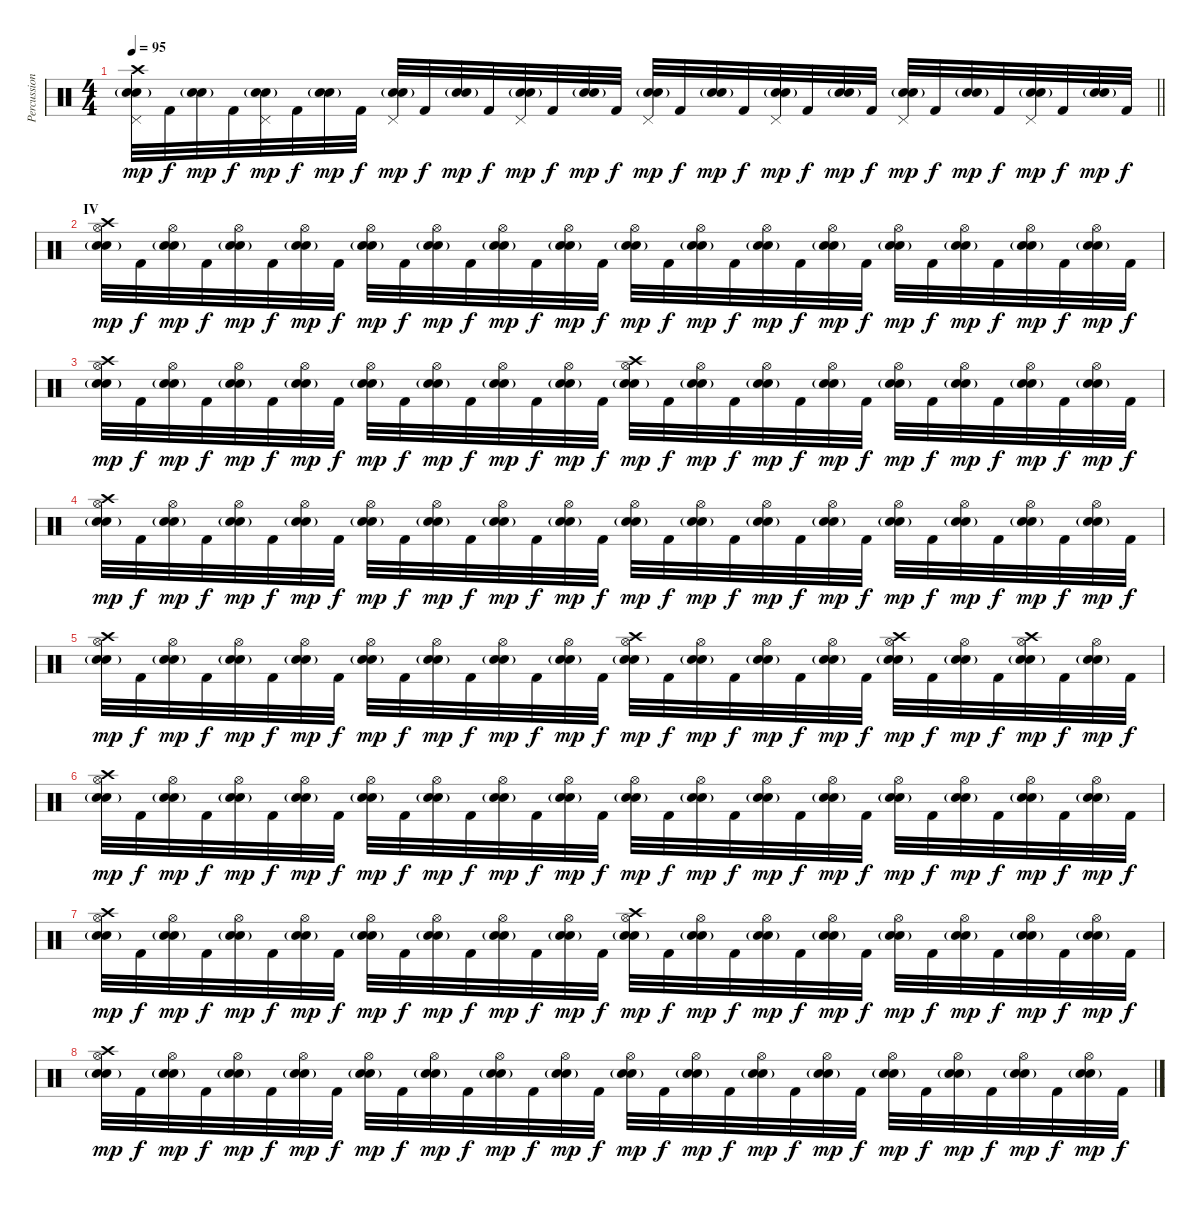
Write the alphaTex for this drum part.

\track ("Percussion" "Percussion") {instrument percussion}
\staff {score}
\articulation defaults
\ts (4 4)
\tempo 95
\clef neutral
\barLineRight lightlight
\ks c
("Crash high (hit)" "Electric Snare (hit)" "Snare (hit) 2"{g} "Pedal Hi-Hat (hit)").32{dy mp} "Kick (hit) 2".32{dy f} ("Electric Snare (hit)" "Snare (hit) 2"{g}).32{dy mp} "Kick (hit) 2".32{dy f} ("Electric Snare (hit)" "Snare (hit) 2"{g} "Pedal Hi-Hat (hit)").32{dy mp} "Kick (hit) 2".32{dy f} ("Electric Snare (hit)" "Snare (hit) 2"{g}).32{dy mp} "Kick (hit) 2".32{dy f} ("Electric Snare (hit)" "Snare (hit) 2"{g} "Pedal Hi-Hat (hit)").32{dy mp} "Kick (hit) 2".32{dy f} ("Electric Snare (hit)" "Snare (hit) 2"{g}).32{dy mp} "Kick (hit) 2".32{dy f} ("Electric Snare (hit)" "Snare (hit) 2"{g} "Pedal Hi-Hat (hit)").32{dy mp} "Kick (hit) 2".32{dy f} ("Electric Snare (hit)" "Snare (hit) 2"{g}).32{dy mp} "Kick (hit) 2".32{dy f} ("Electric Snare (hit)" "Snare (hit) 2"{g} "Pedal Hi-Hat (hit)").32{dy mp} "Kick (hit) 2".32{dy f} ("Electric Snare (hit)" "Snare (hit) 2"{g}).32{dy mp} "Kick (hit) 2".32{dy f} ("Electric Snare (hit)" "Snare (hit) 2"{g} "Pedal Hi-Hat (hit)").32{dy mp} "Kick (hit) 2".32{dy f} ("Electric Snare (hit)" "Snare (hit) 2"{g}).32{dy mp} "Kick (hit) 2".32{dy f} ("Electric Snare (hit)" "Snare (hit) 2"{g} "Pedal Hi-Hat (hit)").32{dy mp} "Kick (hit) 2".32{dy f} ("Electric Snare (hit)" "Snare (hit) 2"{g}).32{dy mp} "Kick (hit) 2".32{dy f} ("Electric Snare (hit)" "Snare (hit) 2"{g} "Pedal Hi-Hat (hit)").32{dy mp} "Kick (hit) 2".32{dy f} ("Electric Snare (hit)" "Snare (hit) 2"{g}).32{dy mp} "Kick (hit) 2".32{dy f} |
\section ("" "IV")
("Crash high (hit)" "Electric Snare (hit)" "Snare (hit) 2"{g} "Hi-Hat (open)").32{dy mp} "Kick (hit) 2".32{dy f} ("Electric Snare (hit)" "Snare (hit) 2"{g} "Hi-Hat (open)").32{dy mp} "Kick (hit) 2".32{dy f} ("Electric Snare (hit)" "Snare (hit) 2"{g} "Hi-Hat (open)").32{dy mp} "Kick (hit) 2".32{dy f} ("Electric Snare (hit)" "Snare (hit) 2"{g} "Hi-Hat (open)").32{dy mp} "Kick (hit) 2".32{dy f} ("Electric Snare (hit)" "Snare (hit) 2"{g} "Hi-Hat (open)").32{dy mp} "Kick (hit) 2".32{dy f} ("Electric Snare (hit)" "Snare (hit) 2"{g} "Hi-Hat (open)").32{dy mp} "Kick (hit) 2".32{dy f} ("Electric Snare (hit)" "Snare (hit) 2"{g} "Hi-Hat (open)").32{dy mp} "Kick (hit) 2".32{dy f} ("Electric Snare (hit)" "Snare (hit) 2"{g} "Hi-Hat (open)").32{dy mp} "Kick (hit) 2".32{dy f} ("Electric Snare (hit)" "Snare (hit) 2"{g} "Hi-Hat (open)").32{dy mp} "Kick (hit) 2".32{dy f} ("Electric Snare (hit)" "Snare (hit) 2"{g} "Hi-Hat (open)").32{dy mp} "Kick (hit) 2".32{dy f} ("Electric Snare (hit)" "Snare (hit) 2"{g} "Hi-Hat (open)").32{dy mp} "Kick (hit) 2".32{dy f} ("Electric Snare (hit)" "Snare (hit) 2"{g} "Hi-Hat (open)").32{dy mp} "Kick (hit) 2".32{dy f} ("Electric Snare (hit)" "Snare (hit) 2"{g} "Hi-Hat (open)").32{dy mp} "Kick (hit) 2".32{dy f} ("Electric Snare (hit)" "Snare (hit) 2"{g} "Hi-Hat (open)").32{dy mp} "Kick (hit) 2".32{dy f} ("Electric Snare (hit)" "Snare (hit) 2"{g} "Hi-Hat (open)").32{dy mp} "Kick (hit) 2".32{dy f} ("Electric Snare (hit)" "Snare (hit) 2"{g} "Hi-Hat (open)").32{dy mp} "Kick (hit) 2".32{dy f} |
("Crash high (hit)" "Electric Snare (hit)" "Snare (hit) 2"{g} "Hi-Hat (open)").32{dy mp} "Kick (hit) 2".32{dy f} ("Electric Snare (hit)" "Snare (hit) 2"{g} "Hi-Hat (open)").32{dy mp} "Kick (hit) 2".32{dy f} ("Electric Snare (hit)" "Snare (hit) 2"{g} "Hi-Hat (open)").32{dy mp} "Kick (hit) 2".32{dy f} ("Electric Snare (hit)" "Snare (hit) 2"{g} "Hi-Hat (open)").32{dy mp} "Kick (hit) 2".32{dy f} ("Electric Snare (hit)" "Snare (hit) 2"{g} "Hi-Hat (open)").32{dy mp} "Kick (hit) 2".32{dy f} ("Electric Snare (hit)" "Snare (hit) 2"{g} "Hi-Hat (open)").32{dy mp} "Kick (hit) 2".32{dy f} ("Electric Snare (hit)" "Snare (hit) 2"{g} "Hi-Hat (open)").32{dy mp} "Kick (hit) 2".32{dy f} ("Electric Snare (hit)" "Snare (hit) 2"{g} "Hi-Hat (open)").32{dy mp} "Kick (hit) 2".32{dy f} ("Crash high (hit)" "Electric Snare (hit)" "Snare (hit) 2"{g} "Hi-Hat (open)").32{dy mp} "Kick (hit) 2".32{dy f} ("Electric Snare (hit)" "Snare (hit) 2"{g} "Hi-Hat (open)").32{dy mp} "Kick (hit) 2".32{dy f} ("Electric Snare (hit)" "Snare (hit) 2"{g} "Hi-Hat (open)").32{dy mp} "Kick (hit) 2".32{dy f} ("Electric Snare (hit)" "Snare (hit) 2"{g} "Hi-Hat (open)").32{dy mp} "Kick (hit) 2".32{dy f} ("Electric Snare (hit)" "Snare (hit) 2"{g} "Hi-Hat (open)").32{dy mp} "Kick (hit) 2".32{dy f} ("Electric Snare (hit)" "Snare (hit) 2"{g} "Hi-Hat (open)").32{dy mp} "Kick (hit) 2".32{dy f} ("Electric Snare (hit)" "Snare (hit) 2"{g} "Hi-Hat (open)").32{dy mp} "Kick (hit) 2".32{dy f} ("Electric Snare (hit)" "Snare (hit) 2"{g} "Hi-Hat (open)").32{dy mp} "Kick (hit) 2".32{dy f} |
("Crash high (hit)" "Electric Snare (hit)" "Snare (hit) 2"{g} "Hi-Hat (open)").32{dy mp} "Kick (hit) 2".32{dy f} ("Electric Snare (hit)" "Snare (hit) 2"{g} "Hi-Hat (open)").32{dy mp} "Kick (hit) 2".32{dy f} ("Electric Snare (hit)" "Snare (hit) 2"{g} "Hi-Hat (open)").32{dy mp} "Kick (hit) 2".32{dy f} ("Electric Snare (hit)" "Snare (hit) 2"{g} "Hi-Hat (open)").32{dy mp} "Kick (hit) 2".32{dy f} ("Electric Snare (hit)" "Snare (hit) 2"{g} "Hi-Hat (open)").32{dy mp} "Kick (hit) 2".32{dy f} ("Electric Snare (hit)" "Snare (hit) 2"{g} "Hi-Hat (open)").32{dy mp} "Kick (hit) 2".32{dy f} ("Electric Snare (hit)" "Snare (hit) 2"{g} "Hi-Hat (open)").32{dy mp} "Kick (hit) 2".32{dy f} ("Electric Snare (hit)" "Snare (hit) 2"{g} "Hi-Hat (open)").32{dy mp} "Kick (hit) 2".32{dy f} ("Electric Snare (hit)" "Snare (hit) 2"{g} "Hi-Hat (open)").32{dy mp} "Kick (hit) 2".32{dy f} ("Electric Snare (hit)" "Snare (hit) 2"{g} "Hi-Hat (open)").32{dy mp} "Kick (hit) 2".32{dy f} ("Electric Snare (hit)" "Snare (hit) 2"{g} "Hi-Hat (open)").32{dy mp} "Kick (hit) 2".32{dy f} ("Electric Snare (hit)" "Snare (hit) 2"{g} "Hi-Hat (open)").32{dy mp} "Kick (hit) 2".32{dy f} ("Electric Snare (hit)" "Snare (hit) 2"{g} "Hi-Hat (open)").32{dy mp} "Kick (hit) 2".32{dy f} ("Electric Snare (hit)" "Snare (hit) 2"{g} "Hi-Hat (open)").32{dy mp} "Kick (hit) 2".32{dy f} ("Electric Snare (hit)" "Snare (hit) 2"{g} "Hi-Hat (open)").32{dy mp} "Kick (hit) 2".32{dy f} ("Electric Snare (hit)" "Snare (hit) 2"{g} "Hi-Hat (open)").32{dy mp} "Kick (hit) 2".32{dy f} |
("Crash high (hit)" "Electric Snare (hit)" "Snare (hit) 2"{g} "Hi-Hat (open)").32{dy mp} "Kick (hit) 2".32{dy f} ("Electric Snare (hit)" "Snare (hit) 2"{g} "Hi-Hat (open)").32{dy mp} "Kick (hit) 2".32{dy f} ("Electric Snare (hit)" "Snare (hit) 2"{g} "Hi-Hat (open)").32{dy mp} "Kick (hit) 2".32{dy f} ("Electric Snare (hit)" "Snare (hit) 2"{g} "Hi-Hat (open)").32{dy mp} "Kick (hit) 2".32{dy f} ("Electric Snare (hit)" "Snare (hit) 2"{g} "Hi-Hat (open)").32{dy mp} "Kick (hit) 2".32{dy f} ("Electric Snare (hit)" "Snare (hit) 2"{g} "Hi-Hat (open)").32{dy mp} "Kick (hit) 2".32{dy f} ("Electric Snare (hit)" "Snare (hit) 2"{g} "Hi-Hat (open)").32{dy mp} "Kick (hit) 2".32{dy f} ("Electric Snare (hit)" "Snare (hit) 2"{g} "Hi-Hat (open)").32{dy mp} "Kick (hit) 2".32{dy f} ("Crash high (hit)" "Electric Snare (hit)" "Snare (hit) 2"{g} "Hi-Hat (open)").32{dy mp} "Kick (hit) 2".32{dy f} ("Electric Snare (hit)" "Snare (hit) 2"{g} "Hi-Hat (open)").32{dy mp} "Kick (hit) 2".32{dy f} ("Electric Snare (hit)" "Snare (hit) 2"{g} "Hi-Hat (open)").32{dy mp} "Kick (hit) 2".32{dy f} ("Electric Snare (hit)" "Snare (hit) 2"{g} "Hi-Hat (open)").32{dy mp} "Kick (hit) 2".32{dy f} ("Crash high (hit)" "Electric Snare (hit)" "Snare (hit) 2"{g} "Hi-Hat (open)").32{dy mp} "Kick (hit) 2".32{dy f} ("Electric Snare (hit)" "Snare (hit) 2"{g} "Hi-Hat (open)").32{dy mp} "Kick (hit) 2".32{dy f} ("Crash high (hit)" "Electric Snare (hit)" "Snare (hit) 2"{g} "Hi-Hat (open)").32{dy mp} "Kick (hit) 2".32{dy f} ("Electric Snare (hit)" "Snare (hit) 2"{g} "Hi-Hat (open)").32{dy mp} "Kick (hit) 2".32{dy f} |
("Crash high (hit)" "Electric Snare (hit)" "Snare (hit) 2"{g} "Hi-Hat (open)").32{dy mp} "Kick (hit) 2".32{dy f} ("Electric Snare (hit)" "Snare (hit) 2"{g} "Hi-Hat (open)").32{dy mp} "Kick (hit) 2".32{dy f} ("Electric Snare (hit)" "Snare (hit) 2"{g} "Hi-Hat (open)").32{dy mp} "Kick (hit) 2".32{dy f} ("Electric Snare (hit)" "Snare (hit) 2"{g} "Hi-Hat (open)").32{dy mp} "Kick (hit) 2".32{dy f} ("Electric Snare (hit)" "Snare (hit) 2"{g} "Hi-Hat (open)").32{dy mp} "Kick (hit) 2".32{dy f} ("Electric Snare (hit)" "Snare (hit) 2"{g} "Hi-Hat (open)").32{dy mp} "Kick (hit) 2".32{dy f} ("Electric Snare (hit)" "Snare (hit) 2"{g} "Hi-Hat (open)").32{dy mp} "Kick (hit) 2".32{dy f} ("Electric Snare (hit)" "Snare (hit) 2"{g} "Hi-Hat (open)").32{dy mp} "Kick (hit) 2".32{dy f} ("Electric Snare (hit)" "Snare (hit) 2"{g} "Hi-Hat (open)").32{dy mp} "Kick (hit) 2".32{dy f} ("Electric Snare (hit)" "Snare (hit) 2"{g} "Hi-Hat (open)").32{dy mp} "Kick (hit) 2".32{dy f} ("Electric Snare (hit)" "Snare (hit) 2"{g} "Hi-Hat (open)").32{dy mp} "Kick (hit) 2".32{dy f} ("Electric Snare (hit)" "Snare (hit) 2"{g} "Hi-Hat (open)").32{dy mp} "Kick (hit) 2".32{dy f} ("Electric Snare (hit)" "Snare (hit) 2"{g} "Hi-Hat (open)").32{dy mp} "Kick (hit) 2".32{dy f} ("Electric Snare (hit)" "Snare (hit) 2"{g} "Hi-Hat (open)").32{dy mp} "Kick (hit) 2".32{dy f} ("Electric Snare (hit)" "Snare (hit) 2"{g} "Hi-Hat (open)").32{dy mp} "Kick (hit) 2".32{dy f} ("Electric Snare (hit)" "Snare (hit) 2"{g} "Hi-Hat (open)").32{dy mp} "Kick (hit) 2".32{dy f} |
("Crash high (hit)" "Electric Snare (hit)" "Snare (hit) 2"{g} "Hi-Hat (open)").32{dy mp} "Kick (hit) 2".32{dy f} ("Electric Snare (hit)" "Snare (hit) 2"{g} "Hi-Hat (open)").32{dy mp} "Kick (hit) 2".32{dy f} ("Electric Snare (hit)" "Snare (hit) 2"{g} "Hi-Hat (open)").32{dy mp} "Kick (hit) 2".32{dy f} ("Electric Snare (hit)" "Snare (hit) 2"{g} "Hi-Hat (open)").32{dy mp} "Kick (hit) 2".32{dy f} ("Electric Snare (hit)" "Snare (hit) 2"{g} "Hi-Hat (open)").32{dy mp} "Kick (hit) 2".32{dy f} ("Electric Snare (hit)" "Snare (hit) 2"{g} "Hi-Hat (open)").32{dy mp} "Kick (hit) 2".32{dy f} ("Electric Snare (hit)" "Snare (hit) 2"{g} "Hi-Hat (open)").32{dy mp} "Kick (hit) 2".32{dy f} ("Electric Snare (hit)" "Snare (hit) 2"{g} "Hi-Hat (open)").32{dy mp} "Kick (hit) 2".32{dy f} ("Crash high (hit)" "Electric Snare (hit)" "Snare (hit) 2"{g} "Hi-Hat (open)").32{dy mp} "Kick (hit) 2".32{dy f} ("Electric Snare (hit)" "Snare (hit) 2"{g} "Hi-Hat (open)").32{dy mp} "Kick (hit) 2".32{dy f} ("Electric Snare (hit)" "Snare (hit) 2"{g} "Hi-Hat (open)").32{dy mp} "Kick (hit) 2".32{dy f} ("Electric Snare (hit)" "Snare (hit) 2"{g} "Hi-Hat (open)").32{dy mp} "Kick (hit) 2".32{dy f} ("Electric Snare (hit)" "Snare (hit) 2"{g} "Hi-Hat (open)").32{dy mp} "Kick (hit) 2".32{dy f} ("Electric Snare (hit)" "Snare (hit) 2"{g} "Hi-Hat (open)").32{dy mp} "Kick (hit) 2".32{dy f} ("Electric Snare (hit)" "Snare (hit) 2"{g} "Hi-Hat (open)").32{dy mp} "Kick (hit) 2".32{dy f} ("Electric Snare (hit)" "Snare (hit) 2"{g} "Hi-Hat (open)").32{dy mp} "Kick (hit) 2".32{dy f} |
("Crash high (hit)" "Electric Snare (hit)" "Snare (hit) 2"{g} "Hi-Hat (open)").32{dy mp} "Kick (hit) 2".32{dy f} ("Electric Snare (hit)" "Snare (hit) 2"{g} "Hi-Hat (open)").32{dy mp} "Kick (hit) 2".32{dy f} ("Electric Snare (hit)" "Snare (hit) 2"{g} "Hi-Hat (open)").32{dy mp} "Kick (hit) 2".32{dy f} ("Electric Snare (hit)" "Snare (hit) 2"{g} "Hi-Hat (open)").32{dy mp} "Kick (hit) 2".32{dy f} ("Electric Snare (hit)" "Snare (hit) 2"{g} "Hi-Hat (open)").32{dy mp} "Kick (hit) 2".32{dy f} ("Electric Snare (hit)" "Snare (hit) 2"{g} "Hi-Hat (open)").32{dy mp} "Kick (hit) 2".32{dy f} ("Electric Snare (hit)" "Snare (hit) 2"{g} "Hi-Hat (open)").32{dy mp} "Kick (hit) 2".32{dy f} ("Electric Snare (hit)" "Snare (hit) 2"{g} "Hi-Hat (open)").32{dy mp} "Kick (hit) 2".32{dy f} ("Electric Snare (hit)" "Snare (hit) 2"{g} "Hi-Hat (open)").32{dy mp} "Kick (hit) 2".32{dy f} ("Electric Snare (hit)" "Snare (hit) 2"{g} "Hi-Hat (open)").32{dy mp} "Kick (hit) 2".32{dy f} ("Electric Snare (hit)" "Snare (hit) 2"{g} "Hi-Hat (open)").32{dy mp} "Kick (hit) 2".32{dy f} ("Electric Snare (hit)" "Snare (hit) 2"{g} "Hi-Hat (open)").32{dy mp} "Kick (hit) 2".32{dy f} ("Electric Snare (hit)" "Snare (hit) 2"{g} "Hi-Hat (open)").32{dy mp} "Kick (hit) 2".32{dy f} ("Electric Snare (hit)" "Snare (hit) 2"{g} "Hi-Hat (open)").32{dy mp} "Kick (hit) 2".32{dy f} ("Electric Snare (hit)" "Snare (hit) 2"{g} "Hi-Hat (open)").32{dy mp} "Kick (hit) 2".32{dy f} ("Electric Snare (hit)" "Snare (hit) 2"{g} "Hi-Hat (open)").32{dy mp} "Kick (hit) 2".32{dy f}
